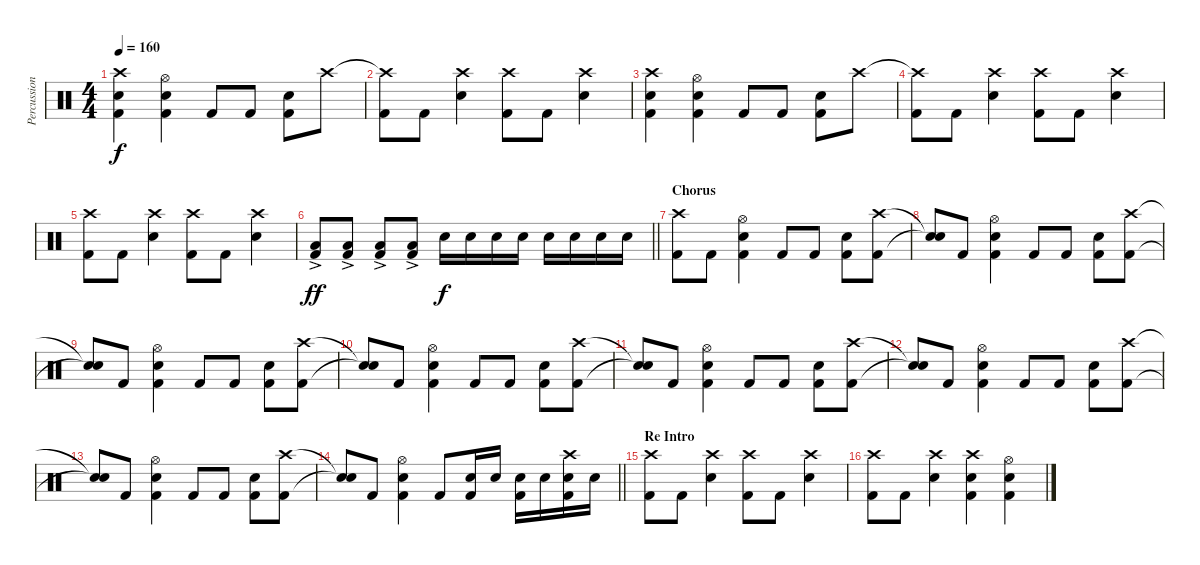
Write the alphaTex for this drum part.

\track ("Percussion" "Percussion") {instrument percussion}
\staff {score}
\articulation defaults
\ts (4 4)
\tempo 160
\clef neutral
\ks c
("Crash high (hit)" "Snare (hit) 2" "Kick (hit) 2").4{dy f} ("Hi-Hat (open)" "Snare (hit) 2" "Kick (hit) 2").4 "Kick (hit) 2".8 "Kick (hit) 2".8 ("Snare (hit) 2" "Kick (hit) 2").8 "Crash high (hit)".8 |
("Crash high (hit)"{t} "Kick (hit) 2").8 "Kick (hit) 2".8 ("Crash high (hit)" "Snare (hit) 2").4 ("Crash high (hit)" "Kick (hit) 2").8 "Kick (hit) 2".8 ("Crash high (hit)" "Snare (hit) 2").4 |
("Crash high (hit)" "Snare (hit) 2" "Kick (hit) 2").4 ("Hi-Hat (open)" "Snare (hit) 2" "Kick (hit) 2").4 "Kick (hit) 2".8 "Kick (hit) 2".8 ("Snare (hit) 2" "Kick (hit) 2").8 "Crash high (hit)".8 |
("Crash high (hit)"{t} "Kick (hit) 2").8 "Kick (hit) 2".8 ("Crash high (hit)" "Snare (hit) 2").4 ("Crash high (hit)" "Kick (hit) 2").8 "Kick (hit) 2".8 ("Crash high (hit)" "Snare (hit) 2").4 |
("Crash high (hit)" "Kick (hit) 2").8 "Kick (hit) 2".8 ("Crash high (hit)" "Snare (hit) 2").4 ("Crash high (hit)" "Kick (hit) 2").8 "Kick (hit) 2".8 ("Crash high (hit)" "Snare (hit) 2").4 |
\barLineRight lightlight
("Low Floor Tom (hit)"{ac} "Kick (hit) 2").8{dy ff} ("Low Floor Tom (hit)"{ac} "Kick (hit) 2").8 ("Low Floor Tom (hit)"{ac} "Kick (hit) 2").8 ("Low Floor Tom (hit)"{ac} "Kick (hit) 2").8 "Snare (hit) 2".16{dy f} "Snare (hit) 2".16 "Snare (hit) 2".16 "Snare (hit) 2".16 "Snare (hit) 2".16 "Snare (hit) 2".16 "Snare (hit) 2".16 "Snare (hit) 2".16 |
\section ("" "Chorus")
("Crash high (hit)" "Kick (hit) 2").8 "Kick (hit) 2".8 ("Hi-Hat (open)" "Snare (hit) 2" "Kick (hit) 2").4 "Kick (hit) 2".8 "Kick (hit) 2".8 ("Snare (hit) 2" "Kick (hit) 2").8 ("Crash high (hit)" "Kick (hit) 2").8 |
("Snare (hit)"{t} "Snare (hit)"{t}).8 "Kick (hit) 2".8 ("Hi-Hat (open)" "Snare (hit) 2" "Kick (hit) 2").4 "Kick (hit) 2".8 "Kick (hit) 2".8 ("Snare (hit) 2" "Kick (hit) 2").8 ("Crash high (hit)" "Kick (hit) 2").8 |
("Snare (hit)"{t} "Snare (hit)"{t}).8 "Kick (hit) 2".8 ("Hi-Hat (open)" "Snare (hit) 2" "Kick (hit) 2").4 "Kick (hit) 2".8 "Kick (hit) 2".8 ("Snare (hit) 2" "Kick (hit) 2").8 ("Crash high (hit)" "Kick (hit) 2").8 |
("Snare (hit)"{t} "Snare (hit)"{t}).8 "Kick (hit) 2".8 ("Hi-Hat (open)" "Snare (hit) 2" "Kick (hit) 2").4 "Kick (hit) 2".8 "Kick (hit) 2".8 ("Snare (hit) 2" "Kick (hit) 2").8 ("Crash high (hit)" "Kick (hit) 2").8 |
("Snare (hit)"{t} "Snare (hit)"{t}).8 "Kick (hit) 2".8 ("Hi-Hat (open)" "Snare (hit) 2" "Kick (hit) 2").4 "Kick (hit) 2".8 "Kick (hit) 2".8 ("Snare (hit) 2" "Kick (hit) 2").8 ("Crash high (hit)" "Kick (hit) 2").8 |
("Snare (hit)"{t} "Snare (hit)"{t}).8 "Kick (hit) 2".8 ("Hi-Hat (open)" "Snare (hit) 2" "Kick (hit) 2").4 "Kick (hit) 2".8 "Kick (hit) 2".8 ("Snare (hit) 2" "Kick (hit) 2").8 ("Crash high (hit)" "Kick (hit) 2").8 |
("Snare (hit)"{t} "Snare (hit)"{t}).8 "Kick (hit) 2".8 ("Hi-Hat (open)" "Snare (hit) 2" "Kick (hit) 2").4 "Kick (hit) 2".8 "Kick (hit) 2".8 ("Snare (hit) 2" "Kick (hit) 2").8 ("Crash high (hit)" "Kick (hit) 2").8 |
\barLineRight lightlight
("Snare (hit)"{t} "Snare (hit)"{t}).8 "Kick (hit) 2".8 ("Hi-Hat (open)" "Snare (hit) 2" "Kick (hit) 2").4 "Kick (hit) 2".8 ("Snare (hit) 2" "Kick (hit) 2").16 "Snare (hit) 2".16 ("Snare (hit) 2" "Kick (hit) 2").16 "Snare (hit) 2".16 ("Crash high (hit)" "Snare (hit) 2" "Kick (hit) 2").16 "Snare (hit) 2".16 |
\section ("" "Re Intro")
("Crash high (hit)" "Kick (hit) 2").8 "Kick (hit) 2".8 ("Crash high (hit)" "Snare (hit) 2").4 ("Crash high (hit)" "Kick (hit) 2").8 "Kick (hit) 2".8 ("Crash high (hit)" "Snare (hit) 2").4 |
("Crash high (hit)" "Kick (hit) 2").8 "Kick (hit) 2".8 ("Crash high (hit)" "Snare (hit) 2").4 ("Crash high (hit)" "Snare (hit) 2" "Kick (hit) 2").4 ("Hi-Hat (open)" "Snare (hit) 2" "Kick (hit) 2").4
